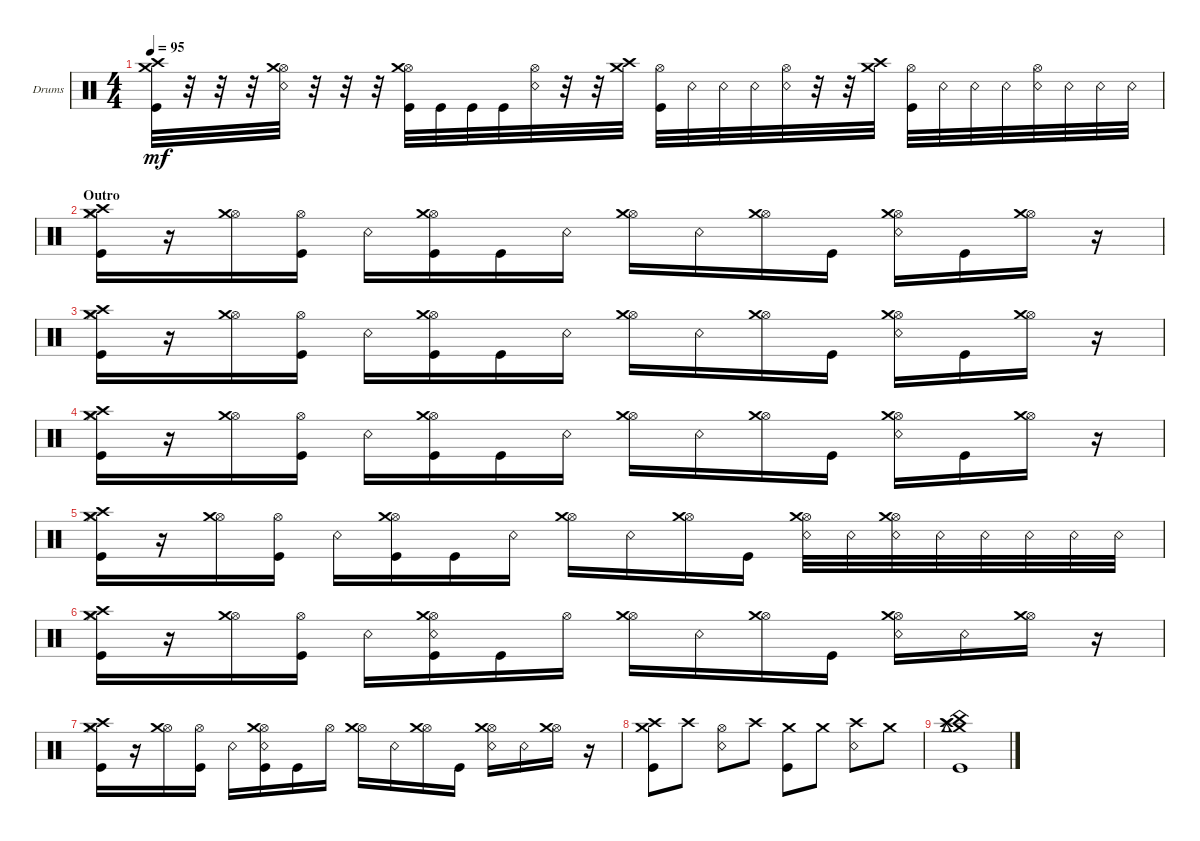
\bracketExtendMode groupsimilarinstruments
\firstSystemTrackNameOrientation horizontal
\otherSystemsTrackNameOrientation horizontal
\track ("Drumkit" "Drums") {instrument percussion}
\staff {score}
\articulation defaults
\ts (4 4)
\tempo 95
\clef neutral
\ks c
("Kick (hit)" "Crash medium (hit)" "Crash high (hit)").32{dy mf} r.32 r.32 r.32 ("Snare (rim shot)" "Hi-Hat (open)" "Crash medium (hit)").32 r.32 r.32 r.32 ("Kick (hit)" "Hi-Hat (open)" "Crash medium (hit)").32 "Kick (hit)".32 "Kick (hit)".32 "Kick (hit)".32 ("Snare (rim shot)" "Hi-Hat (open)").32 r.32 r.32 ("Crash medium (hit)" "Crash high (hit)").32 ("Kick (hit)" "Hi-Hat (open)").32 "Snare (rim shot)".32 "Snare (rim shot)".32 "Snare (rim shot)".32 ("Snare (rim shot)" "Hi-Hat (open)").32 r.32 r.32 ("Crash high (hit)" "Crash medium (hit)").32 ("Kick (hit)" "Hi-Hat (open)").32 "Snare (rim shot)".32 "Snare (rim shot)".32 "Snare (rim shot)".32 ("Snare (rim shot)" "Hi-Hat (open)").32 "Snare (rim shot)".32 "Snare (rim shot)".32 "Snare (rim shot)".32 |
\section ("" "Outro")
("Kick (hit)" "Hi-Hat (closed)" "Crash medium (hit)" "Crash high (hit)").16 r.16 ("Hi-Hat (open)" "Crash medium (hit)").16 ("Kick (hit)" "Hi-Hat (open)").16 "Snare (rim shot)".16 ("Kick (hit)" "Hi-Hat (open)" "Crash medium (hit)").16 "Kick (hit)".16 "Snare (rim shot)".16 ("Hi-Hat (open)" "Crash medium (hit)").16 "Snare (rim shot)".16 ("Hi-Hat (open)" "Crash medium (hit)").16 "Kick (hit)".16 ("Hi-Hat (open)" "Snare (rim shot)" "Crash medium (hit)").16 "Kick (hit)".16 ("Hi-Hat (open)" "Crash medium (hit)").16 r.16 |
("Kick (hit)" "Hi-Hat (closed)" "Crash medium (hit)" "Crash high (hit)").16 r.16 ("Hi-Hat (open)" "Crash medium (hit)").16 ("Kick (hit)" "Hi-Hat (open)").16 "Snare (rim shot)".16 ("Kick (hit)" "Hi-Hat (open)" "Crash medium (hit)").16 "Kick (hit)".16 "Snare (rim shot)".16 ("Hi-Hat (open)" "Crash medium (hit)").16 "Snare (rim shot)".16 ("Hi-Hat (open)" "Crash medium (hit)").16 "Kick (hit)".16 ("Hi-Hat (open)" "Snare (rim shot)" "Crash medium (hit)").16 "Kick (hit)".16 ("Hi-Hat (open)" "Crash medium (hit)").16 r.16 |
("Kick (hit)" "Hi-Hat (closed)" "Crash medium (hit)" "Crash high (hit)").16 r.16 ("Hi-Hat (open)" "Crash medium (hit)").16 ("Kick (hit)" "Hi-Hat (open)").16 "Snare (rim shot)".16 ("Kick (hit)" "Hi-Hat (open)" "Crash medium (hit)").16 "Kick (hit)".16 "Snare (rim shot)".16 ("Hi-Hat (open)" "Crash medium (hit)").16 "Snare (rim shot)".16 ("Hi-Hat (open)" "Crash medium (hit)").16 "Kick (hit)".16 ("Hi-Hat (open)" "Snare (rim shot)" "Crash medium (hit)").16 "Kick (hit)".16 ("Hi-Hat (open)" "Crash medium (hit)").16 r.16 |
("Kick (hit)" "Hi-Hat (closed)" "Crash medium (hit)" "Crash high (hit)").16 r.16 ("Hi-Hat (open)" "Crash medium (hit)").16 ("Kick (hit)" "Hi-Hat (open)").16 "Snare (rim shot)".16 ("Kick (hit)" "Hi-Hat (open)" "Crash medium (hit)").16 "Kick (hit)".16 "Snare (rim shot)".16 ("Hi-Hat (open)" "Crash medium (hit)").16 "Snare (rim shot)".16 ("Hi-Hat (open)" "Crash medium (hit)").16 "Kick (hit)".16 ("Hi-Hat (open)" "Snare (rim shot)" "Crash medium (hit)").32 "Snare (rim shot)".32 ("Hi-Hat (open)" "Crash medium (hit)" "Snare (rim shot)").32 "Snare (rim shot)".32 "Snare (rim shot)".32 "Snare (rim shot)".32 "Snare (rim shot)".32 "Snare (rim shot)".32 |
("Kick (hit)" "Hi-Hat (closed)" "Crash medium (hit)" "Crash high (hit)").16 r.16 ("Hi-Hat (open)" "Crash medium (hit)").16 ("Kick (hit)" "Hi-Hat (open)").16 "Snare (rim shot)".16 ("Kick (hit)" "Hi-Hat (open)" "Crash medium (hit)" "Snare (rim shot)").16 "Kick (hit)".16 "Hi-Hat (open)".16 ("Hi-Hat (open)" "Crash medium (hit)").16 "Snare (rim shot)".16 ("Hi-Hat (open)" "Crash medium (hit)").16 "Kick (hit)".16 ("Hi-Hat (open)" "Snare (rim shot)" "Crash medium (hit)").16 "Snare (rim shot)".16 ("Hi-Hat (open)" "Crash medium (hit)").16 r.16 |
("Kick (hit)" "Hi-Hat (closed)" "Crash medium (hit)" "Crash high (hit)").16 r.16 ("Hi-Hat (open)" "Crash medium (hit)").16 ("Kick (hit)" "Hi-Hat (open)").16 "Snare (rim shot)".16 ("Kick (hit)" "Hi-Hat (open)" "Crash medium (hit)" "Snare (rim shot)").16 "Kick (hit)".16 "Hi-Hat (open)".16 ("Hi-Hat (open)" "Crash medium (hit)").16 "Snare (rim shot)".16 ("Hi-Hat (open)" "Crash medium (hit)").16 "Kick (hit)".16 ("Hi-Hat (open)" "Snare (rim shot)" "Crash medium (hit)").16 "Snare (rim shot)".16 ("Hi-Hat (open)" "Crash medium (hit)").16 r.16 |
("Kick (hit)" "Crash medium (hit)" "Crash high (hit)").8 "Crash high (hit)".8 ("Hi-Hat (open)" "Snare (rim shot)").8 "Crash high (hit)".8 ("Kick (hit)" "Crash medium (hit)").8 "Crash medium (hit)".8 ("Snare (rim shot)" "Crash high (hit)").8 "Crash medium (hit)".8 |
("Kick (hit)" "Crash high (hit)" "Crash medium (hit)" "Splash (hit)" "China (hit)" "Cowbell high (hit)").1
